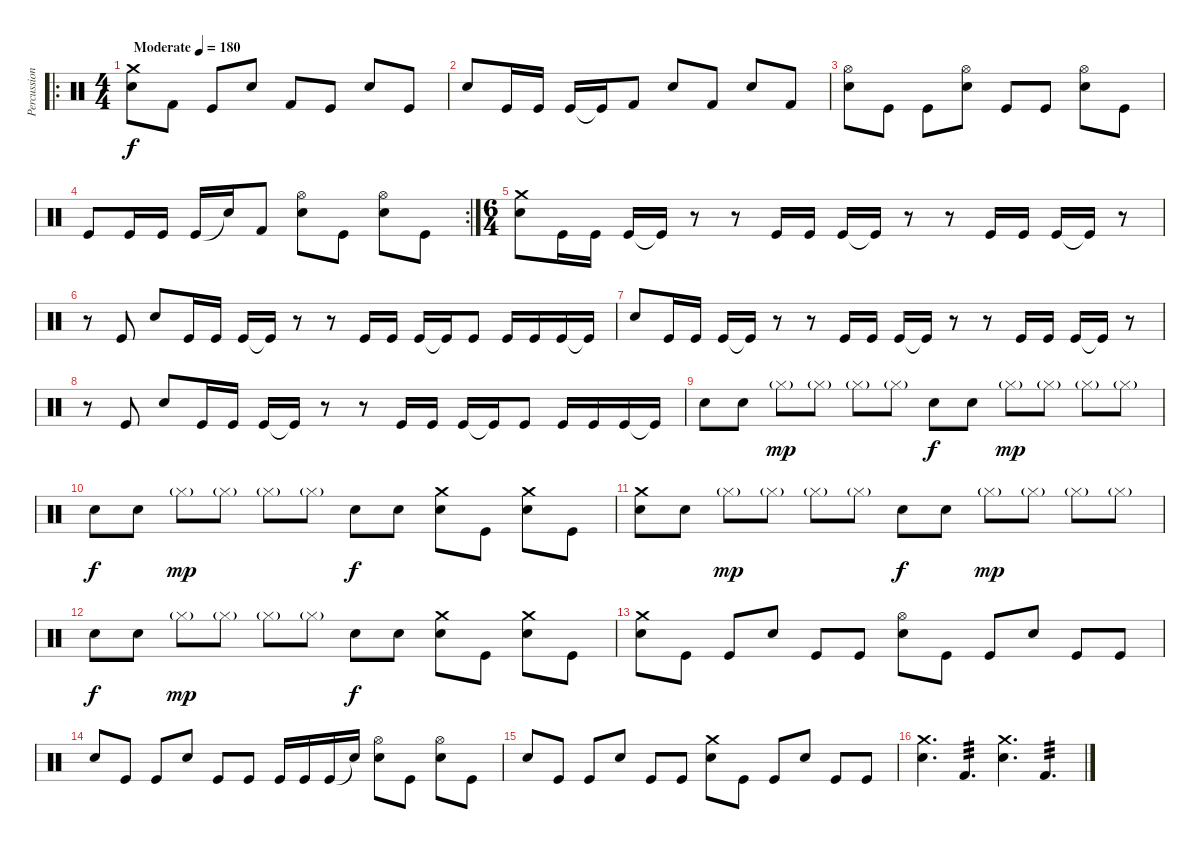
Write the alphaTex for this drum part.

\track ("Percussion" "Percussion") {instrument percussion}
\staff {score}
\articulation defaults
\ro
\ts (4 4)
\tempo (180 "Moderate")
\clef neutral
\ks c
("Crash medium (hit)" "Snare (hit) 2").8{dy f} "Kick (hit) 2".8 "Kick (hit)".8 "Snare (hit) 2".8 "Kick (hit) 2".8 "Kick (hit)".8 "Snare (hit) 2".8 "Kick (hit)".8 |
"Snare (hit) 2".8 "Kick (hit)".16 "Kick (hit)".16 "Kick (hit)".16 "Kick (hit)"{t}.16 "Kick (hit) 2".8 "Snare (hit) 2".8 "Kick (hit) 2".8 "Snare (hit) 2".8 "Kick (hit) 2".8 |
("Hi-Hat (open)" "Snare (hit) 2").8 "Kick (hit)".8 "Kick (hit)".8 ("Hi-Hat (open)" "Snare (hit) 2").8 "Kick (hit)".8 "Kick (hit)".8 ("Hi-Hat (open)" "Snare (hit) 2").8 "Kick (hit)".8 |
\rc 2 "Kick (hit)".8 "Kick (hit)".16 "Kick (hit)".16 "Kick (hit)".16 "Snare (hit)"{t}.16 "Kick (hit) 2".8
("Hi-Hat (open)" "Snare (hit) 2").8 "Kick (hit)".8 ("Hi-Hat (open)" "Snare (hit) 2").8 "Kick (hit)".8 |
\ts (6 4)
("Crash medium (hit)" "Snare (hit) 2").8 "Kick (hit)".16 "Kick (hit)".16 "Kick (hit)".16 "Kick (hit)"{t}.16 r.8 r.8 "Kick (hit)".16 "Kick (hit)".16 "Kick (hit)".16 "Kick (hit)"{t}.16 r.8 r.8 "Kick (hit)".16 "Kick (hit)".16 "Kick (hit)".16 "Kick (hit)"{t}.16 r.8 |
r.8 "Kick (hit)".8 "Snare (hit) 2".8 "Kick (hit)".16 "Kick (hit)".16 "Kick (hit)".16 "Kick (hit)"{t}.16 r.8 r.8 "Kick (hit)".16 "Kick (hit)".16 "Kick (hit)".16 "Kick (hit)"{t}.16 "Kick (hit)".8 "Kick (hit)".16 "Kick (hit)".16 "Kick (hit)".16 "Kick (hit)"{t}.16 |
"Snare (hit) 2".8 "Kick (hit)".16 "Kick (hit)".16 "Kick (hit)".16 "Kick (hit)"{t}.16 r.8 r.8 "Kick (hit)".16 "Kick (hit)".16 "Kick (hit)".16 "Kick (hit)"{t}.16 r.8 r.8 "Kick (hit)".16 "Kick (hit)".16 "Kick (hit)".16 "Kick (hit)"{t}.16 r.8 |
r.8 "Kick (hit)".8 "Snare (hit) 2".8 "Kick (hit)".16 "Kick (hit)".16 "Kick (hit)".16 "Kick (hit)"{t}.16 r.8 r.8 "Kick (hit)".16 "Kick (hit)".16 "Kick (hit)".16 "Kick (hit)"{t}.16 "Kick (hit)".8 "Kick (hit)".16 "Kick (hit)".16 "Kick (hit)".16 "Kick (hit)"{t}.16 |
"Snare (hit) 2".8 "Snare (hit) 2".8 "Hi-Hat (closed)"{g}.8{dy mp} "Hi-Hat (closed)"{g}.8 "Hi-Hat (closed)"{g}.8 "Hi-Hat (closed)"{g}.8 "Snare (hit) 2".8{dy f} "Snare (hit) 2".8 "Hi-Hat (closed)"{g}.8{dy mp} "Hi-Hat (closed)"{g}.8 "Hi-Hat (closed)"{g}.8 "Hi-Hat (closed)"{g}.8 |
"Snare (hit) 2".8{dy f} "Snare (hit) 2".8 "Hi-Hat (closed)"{g}.8{dy mp} "Hi-Hat (closed)"{g}.8 "Hi-Hat (closed)"{g}.8 "Hi-Hat (closed)"{g}.8 "Snare (hit) 2".8{dy f} "Snare (hit) 2".8 ("Crash medium (hit)" "Snare (hit) 2").8 "Kick (hit)".8 ("Crash medium (hit)" "Snare (hit) 2").8 "Kick (hit)".8 |
("Crash medium (hit)" "Snare (hit) 2").8 "Snare (hit) 2".8 "Hi-Hat (closed)"{g}.8{dy mp} "Hi-Hat (closed)"{g}.8 "Hi-Hat (closed)"{g}.8 "Hi-Hat (closed)"{g}.8 "Snare (hit) 2".8{dy f} "Snare (hit) 2".8 "Hi-Hat (closed)"{g}.8{dy mp} "Hi-Hat (closed)"{g}.8 "Hi-Hat (closed)"{g}.8 "Hi-Hat (closed)"{g}.8 |
"Snare (hit) 2".8{dy f} "Snare (hit) 2".8 "Hi-Hat (closed)"{g}.8{dy mp} "Hi-Hat (closed)"{g}.8 "Hi-Hat (closed)"{g}.8 "Hi-Hat (closed)"{g}.8 "Snare (hit) 2".8{dy f} "Snare (hit) 2".8 ("Crash medium (hit)" "Snare (hit) 2").8 "Kick (hit)".8 ("Crash medium (hit)" "Snare (hit) 2").8 "Kick (hit)".8 |
("Crash medium (hit)" "Snare (hit) 2").8 "Kick (hit)".8 "Kick (hit)".8 "Snare (hit) 2".8 "Kick (hit)".8 "Kick (hit)".8 ("Hi-Hat (open)" "Snare (hit) 2").8 "Kick (hit)".8 "Kick (hit)".8 "Snare (hit) 2".8 "Kick (hit)".8 "Kick (hit)".8 |
"Snare (hit) 2".8 "Kick (hit)".8 "Kick (hit)".8 "Snare (hit) 2".8 "Kick (hit)".8 "Kick (hit)".8 "Kick (hit)".16 "Kick (hit)".16 "Kick (hit)".16 "Snare (hit)"{t}.16 ("Hi-Hat (open)" "Snare (hit) 2").8 "Kick (hit)".8 ("Hi-Hat (open)" "Snare (hit) 2").8 "Kick (hit)".8 |
"Snare (hit) 2".8 "Kick (hit)".8 "Kick (hit)".8 "Snare (hit) 2".8 "Kick (hit)".8 "Kick (hit)".8 ("Crash medium (hit)" "Snare (hit) 2").8 "Kick (hit)".8 "Kick (hit)".8 "Snare (hit) 2".8 "Kick (hit)".8 "Kick (hit)".8 |
("Snare (hit) 2" "Crash medium (hit)").4{d} "Kick (hit) 2".4{d tp 3} ("Snare (hit) 2" "Crash medium (hit)").4{d} "Kick (hit) 2".4{d tp 3}
